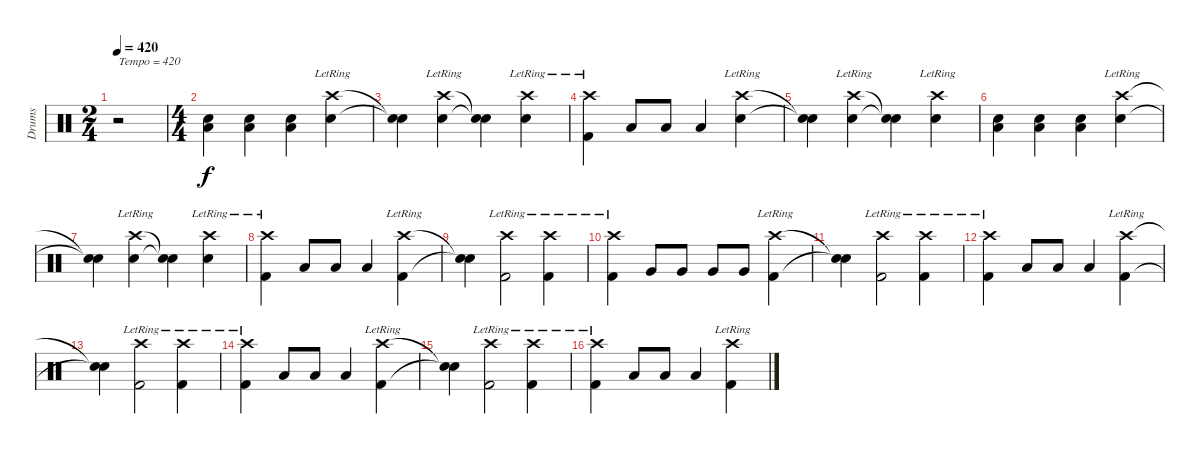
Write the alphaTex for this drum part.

\track ("Drums" "Drums") {instrument percussion}
\staff {score}
\articulation defaults
\ts (2 4)
\tempo 420
\clef neutral
\ks c
r.2{txt "Tempo = 420" dy f} |
\ts (4 4)
("Snare (hit) 2" "Low Floor Tom (hit)").4 ("Snare (hit) 2" "Low Floor Tom (hit)").4 ("Snare (hit) 2" "Low Floor Tom (hit)").4 ("Crash high (hit)"{lr} "Snare (hit) 2").4 |
("Snare (hit)"{t} "Snare (hit)"{t}).4 ("Crash high (hit)"{lr} "Snare (hit) 2").4 ("Snare (hit)"{t} "Snare (hit)"{t}).4 ("Crash high (hit)"{lr} "Snare (hit) 2").4 |
("Crash high (hit)"{lr} "Kick (hit) 2").4 "Low Tom (hit)".8 "Low Tom (hit)".8 "Low Tom (hit)".4 ("Crash high (hit)"{lr} "Snare (hit) 2").4 |
("Snare (hit)"{t} "Snare (hit)"{t}).4 ("Crash high (hit)"{lr} "Snare (hit) 2").4 ("Snare (hit)"{t} "Snare (hit)"{t}).4 ("Crash high (hit)"{lr} "Snare (hit) 2").4 |
("Snare (hit) 2" "Low Floor Tom (hit)").4 ("Snare (hit) 2" "Low Floor Tom (hit)").4 ("Snare (hit) 2" "Low Floor Tom (hit)").4 ("Crash high (hit)"{lr} "Snare (hit) 2").4 |
("Snare (hit)"{t} "Snare (hit)"{t}).4 ("Crash high (hit)"{lr} "Snare (hit) 2").4 ("Snare (hit)"{t} "Snare (hit)"{t}).4 ("Crash high (hit)"{lr} "Snare (hit) 2").4 |
("Crash high (hit)"{lr} "Kick (hit) 2").4 "Low Tom (hit)".8 "Low Tom (hit)".8 "Low Tom (hit)".4 ("Crash high (hit)"{lr} "Kick (hit) 2").4 |
("Snare (hit)"{t} "Snare (hit)"{t}).4 ("Crash high (hit)"{lr} "Kick (hit) 2").2 ("Crash high (hit)"{lr} "Kick (hit) 2").4 |
("Crash high (hit)"{lr} "Kick (hit) 2").4 "Very Low Tom (hit)".8 "Very Low Tom (hit)".8 "Very Low Tom (hit)".8 "Very Low Tom (hit)".8 ("Crash high (hit)"{lr} "Kick (hit) 2").4 |
("Snare (hit)"{t} "Snare (hit)"{t}).4 ("Crash high (hit)"{lr} "Kick (hit) 2").2 ("Crash high (hit)"{lr} "Kick (hit) 2").4 |
("Crash high (hit)"{lr} "Kick (hit) 2").4 "Low Tom (hit)".8 "Low Tom (hit)".8 "Low Tom (hit)".4 ("Crash high (hit)"{lr} "Kick (hit) 2").4 |
("Snare (hit)"{t} "Snare (hit)"{t}).4 ("Crash high (hit)"{lr} "Kick (hit) 2").2 ("Crash high (hit)"{lr} "Kick (hit) 2").4 |
("Crash high (hit)"{lr} "Kick (hit) 2").4 "Low Floor Tom (hit)".8 "Low Floor Tom (hit)".8 "Low Floor Tom (hit)".4 ("Crash high (hit)"{lr} "Kick (hit) 2").4 |
("Snare (hit)"{t} "Snare (hit)"{t}).4 ("Crash high (hit)"{lr} "Kick (hit) 2").2 ("Crash high (hit)"{lr} "Kick (hit) 2").4 |
("Crash high (hit)"{lr} "Kick (hit) 2").4 "Low Tom (hit)".8 "Low Tom (hit)".8 "Low Tom (hit)".4 ("Crash high (hit)"{lr} "Kick (hit) 2").4
